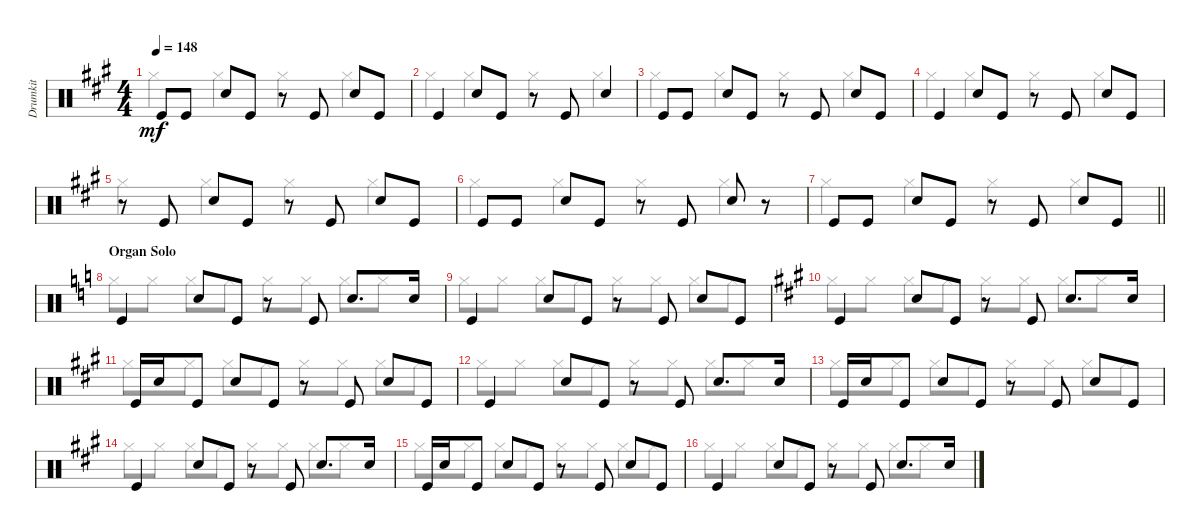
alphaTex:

\track ("Drumkit" "Drumkit") {instrument percussion}
\staff {score}
\articulation defaults
\voice
\ts (4 4)
\tempo 148
\clef neutral
\ks a "Kick (hit)".8{dy mf} "Kick (hit)".8 "Snare (hit) 2".8 "Kick (hit)".8
r.8 "Kick (hit)".8 "Snare (hit) 2".8 "Kick (hit)".8 |
"Kick (hit)".4 "Snare (hit) 2".8 "Kick (hit)".8 r.8 "Kick (hit)".8 "Snare (hit) 2".4 |
"Kick (hit)".8 "Kick (hit)".8 "Snare (hit) 2".8 "Kick (hit)".8 r.8 "Kick (hit)".8 "Snare (hit) 2".8 "Kick (hit)".8 |
"Kick (hit)".4 "Snare (hit) 2".8 "Kick (hit)".8 r.8 "Kick (hit)".8 "Snare (hit) 2".8 "Kick (hit)".8 |
r.8 "Kick (hit)".8 "Snare (hit) 2".8 "Kick (hit)".8 r.8 "Kick (hit)".8 "Snare (hit) 2".8 "Kick (hit)".8 |
"Kick (hit)".8 "Kick (hit)".8 "Snare (hit) 2".8 "Kick (hit)".8 r.8 "Kick (hit)".8 "Snare (hit) 2".8 r.8 |
\barLineRight lightlight "Kick (hit)".8 "Kick (hit)".8 "Snare (hit) 2".8 "Kick (hit)".8
r.8 "Kick (hit)".8 "Snare (hit) 2".8 "Kick (hit)".8 |
\section ("" "Organ Solo")
\ks c "Kick (hit)".4 "Snare (hit) 2".8 "Kick (hit)".8
r.8 "Kick (hit)".8 "Snare (hit) 2".8{d} "Snare (hit) 2".16 |
"Kick (hit)".4 "Snare (hit) 2".8 "Kick (hit)".8 r.8 "Kick (hit)".8 "Snare (hit) 2".8 "Kick (hit)".8 |
\ks a "Kick (hit)".4 "Snare (hit) 2".8 "Kick (hit)".8
r.8 "Kick (hit)".8 "Snare (hit) 2".8{d} "Snare (hit) 2".16 |
"Kick (hit)".16 "Snare (hit) 2".16 "Kick (hit)".8 "Snare (hit) 2".8 "Kick (hit)".8 r.8 "Kick (hit)".8 "Snare (hit) 2".8 "Kick (hit)".8 |
"Kick (hit)".4 "Snare (hit) 2".8 "Kick (hit)".8 r.8 "Kick (hit)".8 "Snare (hit) 2".8{d} "Snare (hit) 2".16 |
"Kick (hit)".16 "Snare (hit) 2".16 "Kick (hit)".8 "Snare (hit) 2".8 "Kick (hit)".8 r.8 "Kick (hit)".8 "Snare (hit) 2".8 "Kick (hit)".8 |
"Kick (hit)".4 "Snare (hit) 2".8 "Kick (hit)".8 r.8 "Kick (hit)".8 "Snare (hit) 2".8{d} "Snare (hit) 2".16 |
"Kick (hit)".16 "Snare (hit) 2".16 "Kick (hit)".8 "Snare (hit) 2".8 "Kick (hit)".8 r.8 "Kick (hit)".8 "Snare (hit) 2".8 "Kick (hit)".8 |
"Kick (hit)".4 "Snare (hit) 2".8 "Kick (hit)".8 r.8 "Kick (hit)".8 "Snare (hit) 2".8{d} "Snare (hit) 2".16
\voice
\clef neutral
\ottava regular
\simile none
\ks a "Hi-Hat (closed)".4{dy mf} "Hi-Hat (closed)".4 "Hi-Hat (closed)".4 "Hi-Hat (closed)".4
|
"Hi-Hat (closed)".4 "Hi-Hat (closed)".4 "Hi-Hat (closed)".4 "Hi-Hat (closed)".4 |
"Hi-Hat (closed)".4 "Hi-Hat (closed)".4 "Hi-Hat (closed)".4 "Hi-Hat (closed)".4 |
"Hi-Hat (closed)".4 "Hi-Hat (closed)".4 "Hi-Hat (closed)".4 "Hi-Hat (closed)".4 |
"Hi-Hat (closed)".4 "Hi-Hat (closed)".4 "Hi-Hat (closed)".4 "Hi-Hat (closed)".4 |
"Hi-Hat (closed)".4 "Hi-Hat (closed)".4 "Hi-Hat (closed)".4 "Hi-Hat (closed)".4 |
\barLineRight lightlight "Hi-Hat (closed)".4 "Hi-Hat (closed)".4 "Hi-Hat (closed)".4 "Hi-Hat (closed)".4
|
\ks c "Hi-Hat (closed)".8 "Hi-Hat (closed)".8 "Hi-Hat (closed)".8 "Hi-Hat (closed)".8 "Hi-Hat (closed)".8 "Hi-Hat (closed)".8 "Hi-Hat (closed)".8 "Hi-Hat (closed)".8
|
"Hi-Hat (closed)".8 "Hi-Hat (closed)".8 "Hi-Hat (closed)".8 "Hi-Hat (closed)".8 "Hi-Hat (closed)".8 "Hi-Hat (closed)".8 "Hi-Hat (closed)".8 "Hi-Hat (closed)".8 |
\ks a "Hi-Hat (closed)".8 "Hi-Hat (closed)".8 "Hi-Hat (closed)".8 "Hi-Hat (closed)".8 "Hi-Hat (closed)".8 "Hi-Hat (closed)".8 "Hi-Hat (closed)".8 "Hi-Hat (closed)".8
|
"Hi-Hat (closed)".8 "Hi-Hat (closed)".8 "Hi-Hat (closed)".8 "Hi-Hat (closed)".8 "Hi-Hat (closed)".8 "Hi-Hat (closed)".8 "Hi-Hat (closed)".8 "Hi-Hat (closed)".8 |
"Hi-Hat (closed)".8 "Hi-Hat (closed)".8 "Hi-Hat (closed)".8 "Hi-Hat (closed)".8 "Hi-Hat (closed)".8 "Hi-Hat (closed)".8 "Hi-Hat (closed)".8 "Hi-Hat (closed)".8 |
"Hi-Hat (closed)".8 "Hi-Hat (closed)".8 "Hi-Hat (closed)".8 "Hi-Hat (closed)".8 "Hi-Hat (closed)".8 "Hi-Hat (closed)".8 "Hi-Hat (closed)".8 "Hi-Hat (closed)".8 |
"Hi-Hat (closed)".8 "Hi-Hat (closed)".8 "Hi-Hat (closed)".8 "Hi-Hat (closed)".8 "Hi-Hat (closed)".8 "Hi-Hat (closed)".8 "Hi-Hat (closed)".8 "Hi-Hat (closed)".8 |
"Hi-Hat (closed)".8 "Hi-Hat (closed)".8 "Hi-Hat (closed)".8 "Hi-Hat (closed)".8 "Hi-Hat (closed)".8 "Hi-Hat (closed)".8 "Hi-Hat (closed)".8 "Hi-Hat (closed)".8 |
"Hi-Hat (closed)".8 "Hi-Hat (closed)".8 "Hi-Hat (closed)".8 "Hi-Hat (closed)".8 "Hi-Hat (closed)".8 "Hi-Hat (closed)".8 "Hi-Hat (closed)".8 "Hi-Hat (closed)".8
